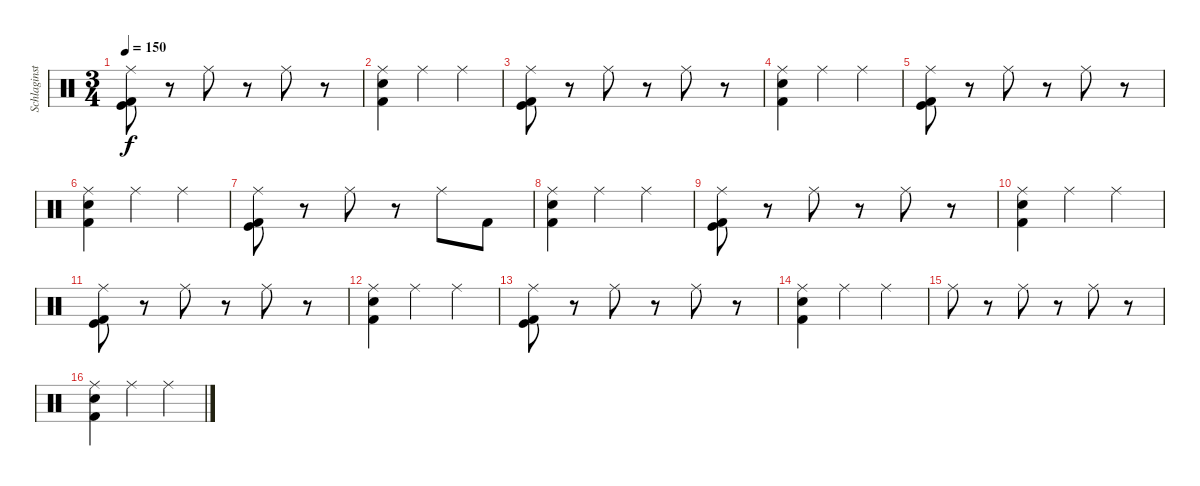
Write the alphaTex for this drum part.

\track ("Schlaginstrumente - Auswahl" "Schlaginst") {instrument percussion}
\staff {score}
\articulation defaults
\ts (3 4)
\tempo 150
\clef neutral
\ks c
("Ride (middle)" "Kick (hit)" "Kick (hit) 2").8{dy f} r.8 "Ride (middle)".8 r.8 "Ride (middle)".8 r.8 |
("Ride (middle)" "Electric Snare (hit)" "Kick (hit) 2").4 "Ride (middle)".4 "Ride (middle)".4 |
("Ride (middle)" "Kick (hit)" "Kick (hit) 2").8 r.8 "Ride (middle)".8 r.8 "Ride (middle)".8 r.8 |
("Ride (middle)" "Electric Snare (hit)" "Kick (hit) 2").4 "Ride (middle)".4 "Ride (middle)".4 |
("Ride (middle)" "Kick (hit)" "Kick (hit) 2").8 r.8 "Ride (middle)".8 r.8 "Ride (middle)".8 r.8 |
("Ride (middle)" "Electric Snare (hit)" "Kick (hit) 2").4 "Ride (middle)".4 "Ride (middle)".4 |
("Ride (middle)" "Kick (hit)" "Kick (hit) 2").8 r.8 "Ride (middle)".8 r.8 "Ride (middle)".8 "Kick (hit) 2".8 |
("Ride (middle)" "Electric Snare (hit)" "Kick (hit) 2").4 "Ride (middle)".4 "Ride (middle)".4 |
("Ride (middle)" "Kick (hit)" "Kick (hit) 2").8 r.8 "Ride (middle)".8 r.8 "Ride (middle)".8 r.8 |
("Ride (middle)" "Electric Snare (hit)" "Kick (hit) 2").4 "Ride (middle)".4 "Ride (middle)".4 |
("Ride (middle)" "Kick (hit)" "Kick (hit) 2").8 r.8 "Ride (middle)".8 r.8 "Ride (middle)".8 r.8 |
("Ride (middle)" "Electric Snare (hit)" "Kick (hit) 2").4 "Ride (middle)".4 "Ride (middle)".4 |
("Ride (middle)" "Kick (hit)" "Kick (hit) 2").8 r.8 "Ride (middle)".8 r.8 "Ride (middle)".8 r.8 |
("Ride (middle)" "Electric Snare (hit)" "Kick (hit) 2").4 "Ride (middle)".4 "Ride (middle)".4 |
"Ride (middle)".8 r.8 "Ride (middle)".8 r.8 "Ride (middle)".8 r.8 |
("Ride (middle)" "Electric Snare (hit)" "Kick (hit) 2").4 "Ride (middle)".4 "Ride (middle)".4
